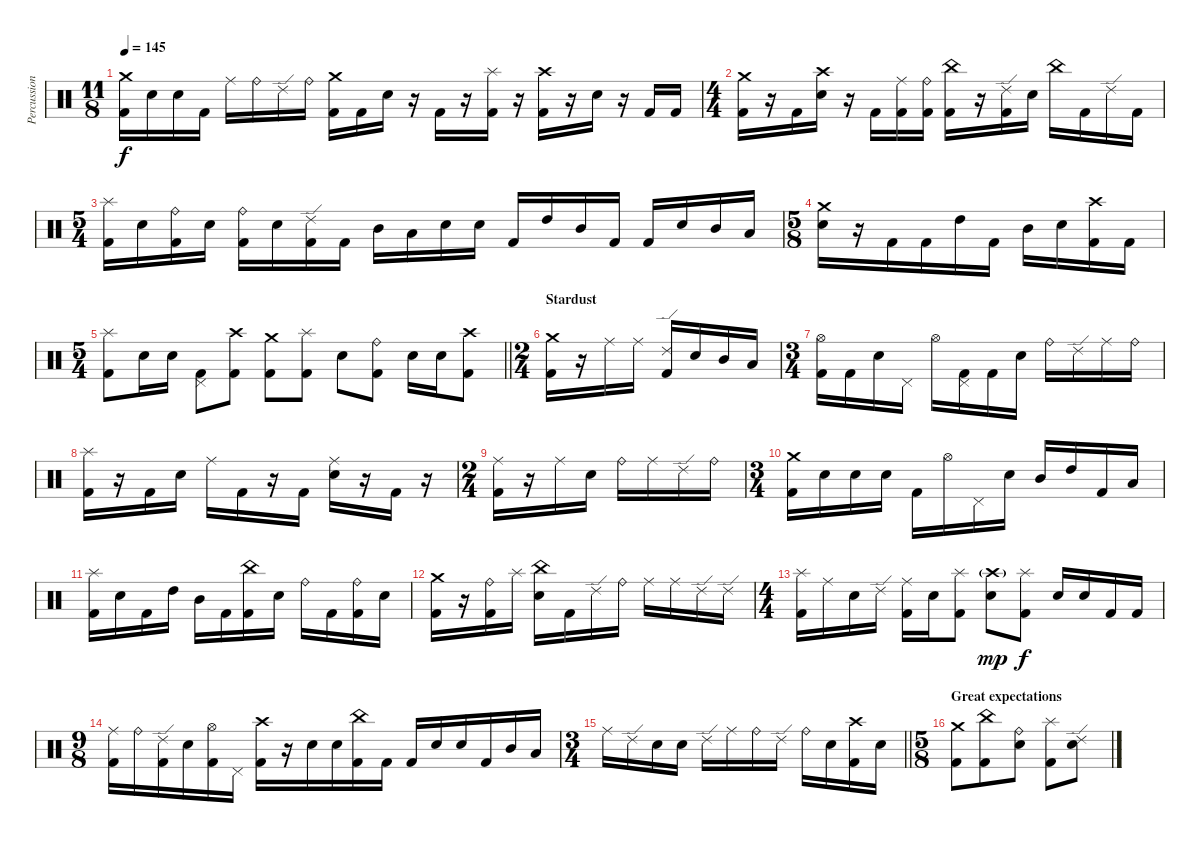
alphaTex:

\track ("Percussion" "Percussion") {instrument percussion}
\staff {score}
\articulation defaults
\ts (11 8)
\tempo 145
\clef neutral
\ks c
("Crash medium (hit)" "Kick (hit) 2").16{dy f} "Electric Snare (hit)".16 "Electric Snare (hit)".16 "Kick (hit) 2".16 "Ride (middle)".16 "Ride (bell)".16 "Ride (edge) 2".16 "Ride (bell)".16 ("Crash medium (hit)" "Kick (hit) 2").16 "Kick (hit) 2".16 "Electric Snare (hit)".16 r.16 "Kick (hit) 2".16 r.16 ("Splash (hit)" "Kick (hit) 2").16 r.16 ("Crash high (hit)" "Kick (hit) 2").16 r.16 "Electric Snare (hit)".16 r.16 "Kick (hit) 2".16 "Kick (hit) 2".16 |
\ts (4 4)
("Crash medium (hit)" "Kick (hit) 2").16 r.16 "Kick (hit) 2".16 ("Crash high (hit)" "Electric Snare (hit)").16 r.16 "Kick (hit) 2".16 ("Ride (middle)" "Kick (hit) 2").16 ("Ride (bell)" "Kick (hit) 2").16 ("China (hit)" "Kick (hit) 2").16 r.16 ("Ride (edge) 2" "Kick (hit) 2").16 "Electric Snare (hit)".16 "China (hit)".16 "Kick (hit) 2".16 "Ride (edge) 2".16 "Kick (hit) 2".16 |
\ts (5 4)
("Splash (hit)" "Kick (hit) 2").16 "Electric Snare (hit)".16 ("Ride (bell)" "Kick (hit) 2").16 "Electric Snare (hit)".16 ("Ride (bell)" "Kick (hit) 2").16 "Electric Snare (hit)".16 ("Ride (edge) 2" "Kick (hit) 2").16 "Kick (hit) 2".16 "Mid Tom (hit)".16 "Low Tom (hit)".16 "Electric Snare (hit)".16 "Electric Snare (hit)".16 "Kick (hit) 2".16 "High Tom (hit)".16 "Mid Tom (hit)".16 "Kick (hit) 2".16 "Kick (hit) 2".16 "Electric Snare (hit)".16 "Mid Tom (hit)".16 "Low Tom (hit)".16 |
\ts (5 8)
("Crash medium (hit)" "Electric Snare (hit)").16 r.16 "Kick (hit) 2".16 "Kick (hit) 2".16 "High Tom (hit)".16 "Kick (hit) 2".16 "Mid Tom (hit)".16 "Electric Snare (hit)".16 ("Crash high (hit)" "Kick (hit) 2").16 "Kick (hit) 2".16 |
\ts (5 4)
\barLineRight lightlight
("Splash (hit)" "Kick (hit) 2").8 "Electric Snare (hit)".16 "Electric Snare (hit)".16 ("Pedal Hi-Hat (hit)" "Kick (hit) 2").8 ("Crash high (hit)" "Kick (hit) 2").8 ("Crash medium (hit)" "Kick (hit) 2").8 ("Splash (hit)" "Kick (hit) 2").8 "Electric Snare (hit)".8 ("Ride (bell)" "Kick (hit) 2").8 "Electric Snare (hit)".16 "Electric Snare (hit)".16 ("Crash high (hit)" "Kick (hit) 2").8 |
\ts (2 4)
\section ("" "Stardust")
("Crash medium (hit)" "Kick (hit) 2").16 r.16 "Ride (middle)".16 "Ride (middle)".16 ("Ride (edge) 2" "Kick (hit) 2").16 "Electric Snare (hit)".16 "Mid Tom (hit)".16 "Low Tom (hit)".16 |
\ts (3 4)
("Hi-Hat (open)" "Kick (hit) 2").16 "Kick (hit) 2".16 "Electric Snare (hit)".16 "Pedal Hi-Hat (hit)".16 "Hi-Hat (open)".16 ("Pedal Hi-Hat (hit)" "Kick (hit) 2").16 "Kick (hit) 2".16 "Electric Snare (hit)".16 "Ride (bell)".16 "Ride (edge) 2".16 "Ride (middle)".16 "Ride (bell)".16 |
("Splash (hit)" "Kick (hit) 2").16 r.16 "Kick (hit) 2".16 "Electric Snare (hit)".16 "Ride (middle)".16 "Kick (hit) 2".16 r.16 "Kick (hit) 2".16 ("Ride (middle)" "Electric Snare (hit)").16 r.16 "Kick (hit) 2".16 r.16 |
\ts (2 4)
("Ride (middle)" "Kick (hit) 2").16 r.16 "Ride (middle)".16 "Electric Snare (hit)".16 "Ride (bell)".16 "Ride (middle)".16 "Ride (edge) 2".16 "Ride (bell)".16 |
\ts (3 4)
("Crash medium (hit)" "Kick (hit) 2").16 "Electric Snare (hit)".16 "Electric Snare (hit)".16 "Electric Snare (hit)".16 "Kick (hit) 2".16 "Hi-Hat (open)".16 "Pedal Hi-Hat (hit)".16 "Electric Snare (hit)".16 "Mid Tom (hit)".16 "High Tom (hit)".16 "Kick (hit) 2".16 "Low Tom (hit)".16 |
("Splash (hit)" "Kick (hit) 2").16 "Electric Snare (hit)".16 "Kick (hit) 2".16 "High Tom (hit)".16 "Mid Tom (hit)".16 "Kick (hit) 2".16 ("China (hit)" "Kick (hit) 2").16 "Electric Snare (hit)".16 "Ride (bell)".16 "Kick (hit) 2".16 ("Ride (bell)" "Kick (hit) 2").16 "Electric Snare (hit)".16 |
("Crash medium (hit)" "Kick (hit) 2").16 r.16 ("Ride (bell)" "Kick (hit) 2").16 "Splash (hit)".16 ("China (hit)" "Electric Snare (hit)").16 "Kick (hit) 2".16 "Ride (edge) 2".16 "Ride (bell)".16 "Ride (middle)".16 "Ride (middle)".16 "Ride (edge) 2".16 "Ride (edge) 2".16 |
\ts (4 4)
("Splash (hit)" "Kick (hit) 2").16 "Ride (middle)".16 "Electric Snare (hit)".16 "Ride (edge) 2".16 ("Ride (middle)" "Kick (hit) 2").16 "Electric Snare (hit)".16 ("Splash (hit)" "Kick (hit) 2").8 ("Crash high (hit)"{g} "Electric Snare (hit)").8{dy mp} ("Splash (hit)" "Kick (hit) 2").8{dy f} "Electric Snare (hit)".16 "Electric Snare (hit)".16 "Kick (hit) 2".16 "Kick (hit) 2".16 |
\ts (9 8)
("Ride (middle)" "Kick (hit) 2").16 "Ride (bell)".16 ("Ride (edge) 2" "Kick (hit) 2").16 "Electric Snare (hit)".16 ("Hi-Hat (open)" "Kick (hit) 2").16 "Pedal Hi-Hat (hit)".16 ("Crash high (hit)" "Kick (hit) 2").16 r.16 "Electric Snare (hit)".16 "Electric Snare (hit)".16 ("China (hit)" "Kick (hit) 2").16 "Kick (hit) 2".16 "Kick (hit) 2".16 "Electric Snare (hit)".16 "Electric Snare (hit)".16 "Kick (hit) 2".16 "Mid Tom (hit)".16 "Low Tom (hit)".16 |
\ts (3 4)
\barLineRight lightlight "Ride (middle)".16 "Ride (edge) 2".16 "Electric Snare (hit)".16 "Electric Snare (hit)".16 "Ride (edge) 2".16 "Ride (middle)".16 "Ride (bell)".16 "Ride (edge) 2".16 "Ride (bell)".16 "Electric Snare (hit)".16
("Crash high (hit)" "Kick (hit) 2").16 "Electric Snare (hit)".16 |
\ts (5 8)
\section ("" "Great expectations")
("Crash medium (hit)" "Kick (hit) 2").8 ("China (hit)" "Kick (hit) 2").8 ("Ride (bell)" "Electric Snare (hit)").8 ("Splash (hit)" "Kick (hit) 2").8 ("Ride (edge) 2" "Electric Snare (hit)").8
